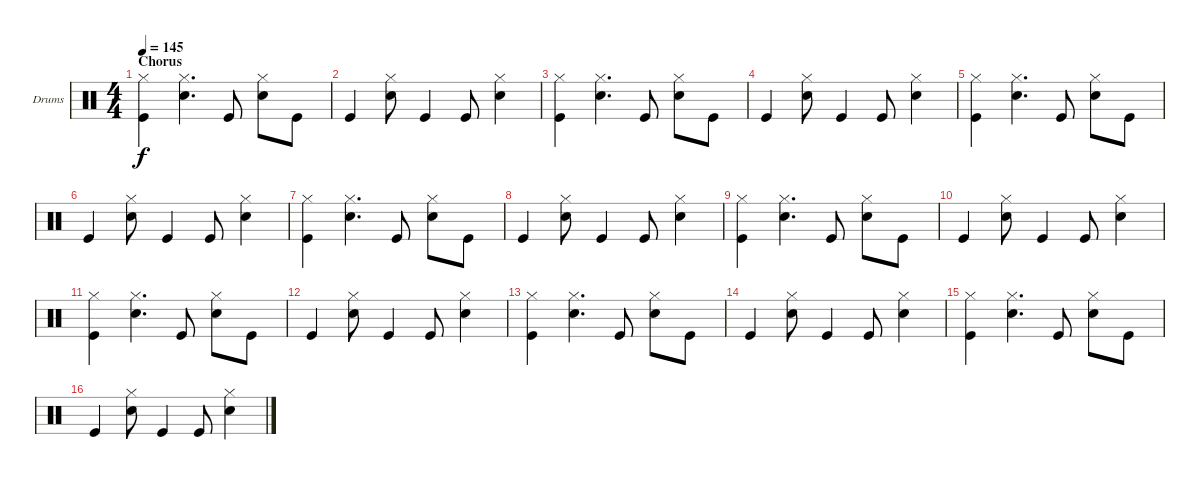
\bracketExtendMode groupsimilarinstruments
\firstSystemTrackNameOrientation horizontal
\otherSystemsTrackNameOrientation horizontal
\track ("Drumkit" "Drums") {solo instrument percussion}
\staff {score}
\articulation defaults
\ts (4 4)
\section ("" "Chorus")
\tempo 145
\clef neutral
\ks c
("Kick (hit)" "Hi-Hat (closed)").4{dy f} ("Snare (hit) 2" "Hi-Hat (closed)").4{d} "Kick (hit)".8 ("Snare (hit) 2" "Hi-Hat (closed)").8 "Kick (hit)".8 |
"Kick (hit)".4 ("Snare (hit) 2" "Hi-Hat (closed)").8 "Kick (hit)".4 "Kick (hit)".8 ("Snare (hit) 2" "Hi-Hat (closed)").4 |
("Kick (hit)" "Hi-Hat (closed)").4 ("Snare (hit) 2" "Hi-Hat (closed)").4{d} "Kick (hit)".8 ("Snare (hit) 2" "Hi-Hat (closed)").8 "Kick (hit)".8 |
"Kick (hit)".4 ("Snare (hit) 2" "Hi-Hat (closed)").8 "Kick (hit)".4 "Kick (hit)".8 ("Snare (hit) 2" "Hi-Hat (closed)").4 |
("Kick (hit)" "Hi-Hat (closed)").4 ("Snare (hit) 2" "Hi-Hat (closed)").4{d} "Kick (hit)".8 ("Snare (hit) 2" "Hi-Hat (closed)").8 "Kick (hit)".8 |
"Kick (hit)".4 ("Snare (hit) 2" "Hi-Hat (closed)").8 "Kick (hit)".4 "Kick (hit)".8 ("Snare (hit) 2" "Hi-Hat (closed)").4 |
("Kick (hit)" "Hi-Hat (closed)").4 ("Snare (hit) 2" "Hi-Hat (closed)").4{d} "Kick (hit)".8 ("Snare (hit) 2" "Hi-Hat (closed)").8 "Kick (hit)".8 |
"Kick (hit)".4 ("Snare (hit) 2" "Hi-Hat (closed)").8 "Kick (hit)".4 "Kick (hit)".8 ("Snare (hit) 2" "Hi-Hat (closed)").4 |
("Kick (hit)" "Hi-Hat (closed)").4 ("Snare (hit) 2" "Hi-Hat (closed)").4{d} "Kick (hit)".8 ("Snare (hit) 2" "Hi-Hat (closed)").8 "Kick (hit)".8 |
"Kick (hit)".4 ("Snare (hit) 2" "Hi-Hat (closed)").8 "Kick (hit)".4 "Kick (hit)".8 ("Snare (hit) 2" "Hi-Hat (closed)").4 |
("Kick (hit)" "Hi-Hat (closed)").4 ("Snare (hit) 2" "Hi-Hat (closed)").4{d} "Kick (hit)".8 ("Snare (hit) 2" "Hi-Hat (closed)").8 "Kick (hit)".8 |
"Kick (hit)".4 ("Snare (hit) 2" "Hi-Hat (closed)").8 "Kick (hit)".4 "Kick (hit)".8 ("Snare (hit) 2" "Hi-Hat (closed)").4 |
("Kick (hit)" "Hi-Hat (closed)").4 ("Snare (hit) 2" "Hi-Hat (closed)").4{d} "Kick (hit)".8 ("Snare (hit) 2" "Hi-Hat (closed)").8 "Kick (hit)".8 |
"Kick (hit)".4 ("Snare (hit) 2" "Hi-Hat (closed)").8 "Kick (hit)".4 "Kick (hit)".8 ("Snare (hit) 2" "Hi-Hat (closed)").4 |
("Kick (hit)" "Hi-Hat (closed)").4 ("Snare (hit) 2" "Hi-Hat (closed)").4{d} "Kick (hit)".8 ("Snare (hit) 2" "Hi-Hat (closed)").8 "Kick (hit)".8 |
"Kick (hit)".4 ("Snare (hit) 2" "Hi-Hat (closed)").8 "Kick (hit)".4 "Kick (hit)".8 ("Snare (hit) 2" "Hi-Hat (closed)").4
